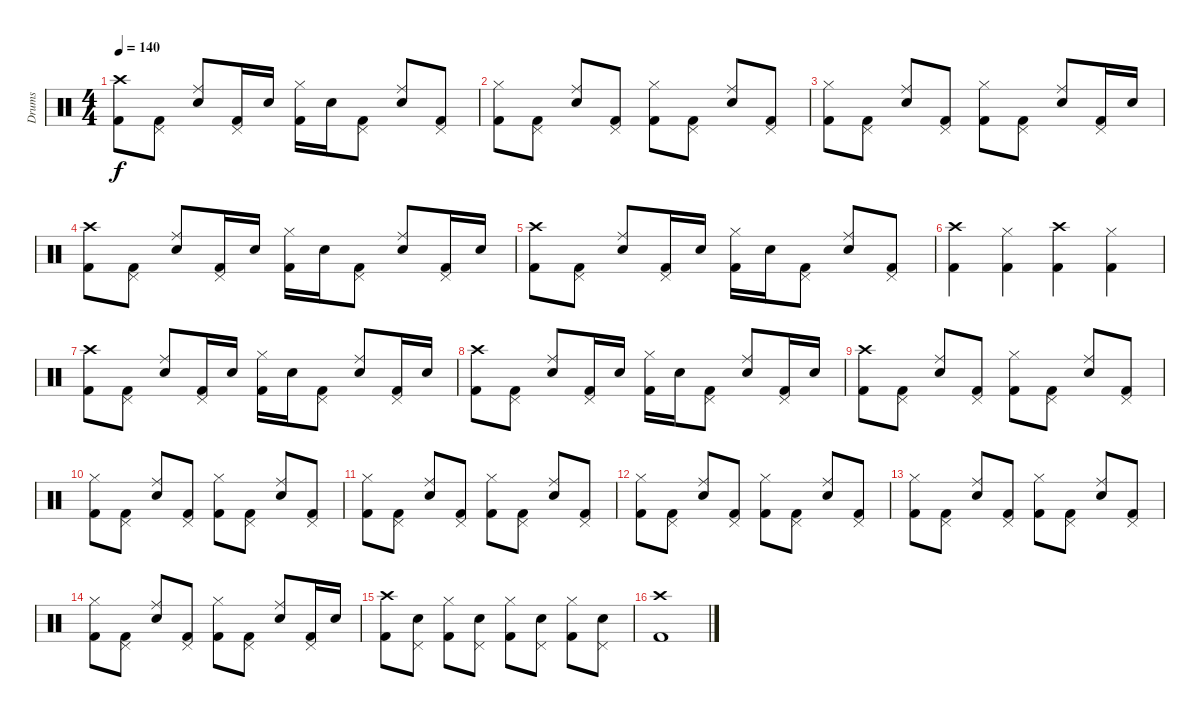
\track ("Drums" "Drums") {instrument percussion}
\staff {score}
\articulation defaults
\ts (4 4)
\tempo 140
\clef neutral
\ks c
("Kick (hit) 2" "Crash high (hit)").8{dy f} ("Kick (hit) 2" "Pedal Hi-Hat (hit)").8 ("Electric Snare (hit)" "Ride (middle)").8 ("Kick (hit) 2" "Pedal Hi-Hat (hit)").16 "Snare (hit) 2".16 ("Kick (hit) 2" "Hi-Hat (closed)").16 "Snare (hit) 2".16 ("Kick (hit) 2" "Pedal Hi-Hat (hit)").8 ("Electric Snare (hit)" "Ride (middle)").8 ("Kick (hit) 2" "Pedal Hi-Hat (hit)").8 |
("Kick (hit) 2" "Hi-Hat (closed)").8 ("Kick (hit) 2" "Pedal Hi-Hat (hit)").8 ("Electric Snare (hit)" "Ride (middle)").8 ("Kick (hit) 2" "Pedal Hi-Hat (hit)").8 ("Kick (hit) 2" "Hi-Hat (closed)").8 ("Kick (hit) 2" "Pedal Hi-Hat (hit)").8 ("Electric Snare (hit)" "Ride (middle)").8 ("Kick (hit) 2" "Pedal Hi-Hat (hit)").8 |
("Kick (hit) 2" "Hi-Hat (closed)").8 ("Kick (hit) 2" "Pedal Hi-Hat (hit)").8 ("Electric Snare (hit)" "Ride (middle)").8 ("Kick (hit) 2" "Pedal Hi-Hat (hit)").8 ("Kick (hit) 2" "Hi-Hat (closed)").8 ("Kick (hit) 2" "Pedal Hi-Hat (hit)").8 ("Electric Snare (hit)" "Ride (middle)").8 ("Kick (hit) 2" "Pedal Hi-Hat (hit)").16 "Electric Snare (hit)".16 |
("Kick (hit) 2" "Crash high (hit)").8 ("Kick (hit) 2" "Pedal Hi-Hat (hit)").8 ("Electric Snare (hit)" "Ride (middle)").8 ("Kick (hit) 2" "Pedal Hi-Hat (hit)").16 "Snare (hit) 2".16 ("Kick (hit) 2" "Hi-Hat (closed)").16 "Snare (hit) 2".16 ("Kick (hit) 2" "Pedal Hi-Hat (hit)").8 ("Electric Snare (hit)" "Ride (middle)").8 ("Kick (hit) 2" "Pedal Hi-Hat (hit)").16 "Electric Snare (hit)".16 |
("Kick (hit) 2" "Crash high (hit)").8 ("Kick (hit) 2" "Pedal Hi-Hat (hit)").8 ("Electric Snare (hit)" "Ride (middle)").8 ("Kick (hit) 2" "Pedal Hi-Hat (hit)").16 "Snare (hit) 2".16 ("Kick (hit) 2" "Hi-Hat (closed)").16 "Snare (hit) 2".16 ("Kick (hit) 2" "Pedal Hi-Hat (hit)").8 ("Electric Snare (hit)" "Ride (middle)").8 ("Kick (hit) 2" "Pedal Hi-Hat (hit)").8 |
("Kick (hit) 2" "Crash high (hit)").4 ("Kick (hit) 2" "Hi-Hat (closed)").4 ("Kick (hit) 2" "Crash high (hit)").4 ("Kick (hit) 2" "Hi-Hat (closed)").4 |
("Kick (hit) 2" "Crash high (hit)").8 ("Kick (hit) 2" "Pedal Hi-Hat (hit)").8 ("Electric Snare (hit)" "Ride (middle)").8 ("Kick (hit) 2" "Pedal Hi-Hat (hit)").16 "Snare (hit) 2".16 ("Kick (hit) 2" "Hi-Hat (closed)").16 "Snare (hit) 2".16 ("Kick (hit) 2" "Pedal Hi-Hat (hit)").8 ("Electric Snare (hit)" "Ride (middle)").8 ("Kick (hit) 2" "Pedal Hi-Hat (hit)").16 "Electric Snare (hit)".16 |
("Kick (hit) 2" "Crash high (hit)").8 ("Kick (hit) 2" "Pedal Hi-Hat (hit)").8 ("Electric Snare (hit)" "Ride (middle)").8 ("Kick (hit) 2" "Pedal Hi-Hat (hit)").16 "Snare (hit) 2".16 ("Kick (hit) 2" "Hi-Hat (closed)").16 "Snare (hit) 2".16 ("Kick (hit) 2" "Pedal Hi-Hat (hit)").8 ("Electric Snare (hit)" "Ride (middle)").8 ("Kick (hit) 2" "Pedal Hi-Hat (hit)").16 "Electric Snare (hit)".16 |
("Kick (hit) 2" "Crash high (hit)").8 ("Kick (hit) 2" "Pedal Hi-Hat (hit)").8 ("Electric Snare (hit)" "Ride (middle)").8 ("Kick (hit) 2" "Pedal Hi-Hat (hit)").8 ("Kick (hit) 2" "Hi-Hat (closed)").8 ("Kick (hit) 2" "Pedal Hi-Hat (hit)").8 ("Electric Snare (hit)" "Ride (middle)").8 ("Kick (hit) 2" "Pedal Hi-Hat (hit)").8 |
("Kick (hit) 2" "Hi-Hat (closed)").8 ("Kick (hit) 2" "Pedal Hi-Hat (hit)").8 ("Electric Snare (hit)" "Ride (middle)").8 ("Kick (hit) 2" "Pedal Hi-Hat (hit)").8 ("Kick (hit) 2" "Hi-Hat (closed)").8 ("Kick (hit) 2" "Pedal Hi-Hat (hit)").8 ("Electric Snare (hit)" "Ride (middle)").8 ("Kick (hit) 2" "Pedal Hi-Hat (hit)").8 |
("Kick (hit) 2" "Hi-Hat (closed)").8 ("Kick (hit) 2" "Pedal Hi-Hat (hit)").8 ("Electric Snare (hit)" "Ride (middle)").8 ("Kick (hit) 2" "Pedal Hi-Hat (hit)").8 ("Kick (hit) 2" "Hi-Hat (closed)").8 ("Kick (hit) 2" "Pedal Hi-Hat (hit)").8 ("Electric Snare (hit)" "Ride (middle)").8 ("Kick (hit) 2" "Pedal Hi-Hat (hit)").8 |
("Kick (hit) 2" "Hi-Hat (closed)").8 ("Kick (hit) 2" "Pedal Hi-Hat (hit)").8 ("Electric Snare (hit)" "Ride (middle)").8 ("Kick (hit) 2" "Pedal Hi-Hat (hit)").8 ("Kick (hit) 2" "Hi-Hat (closed)").8 ("Kick (hit) 2" "Pedal Hi-Hat (hit)").8 ("Electric Snare (hit)" "Ride (middle)").8 ("Kick (hit) 2" "Pedal Hi-Hat (hit)").8 |
("Kick (hit) 2" "Hi-Hat (closed)").8 ("Kick (hit) 2" "Pedal Hi-Hat (hit)").8 ("Electric Snare (hit)" "Ride (middle)").8 ("Kick (hit) 2" "Pedal Hi-Hat (hit)").8 ("Kick (hit) 2" "Hi-Hat (closed)").8 ("Kick (hit) 2" "Pedal Hi-Hat (hit)").8 ("Electric Snare (hit)" "Ride (middle)").8 ("Kick (hit) 2" "Pedal Hi-Hat (hit)").8 |
("Kick (hit) 2" "Hi-Hat (closed)").8 ("Kick (hit) 2" "Pedal Hi-Hat (hit)").8 ("Electric Snare (hit)" "Ride (middle)").8 ("Kick (hit) 2" "Pedal Hi-Hat (hit)").8 ("Kick (hit) 2" "Hi-Hat (closed)").8 ("Kick (hit) 2" "Pedal Hi-Hat (hit)").8 ("Electric Snare (hit)" "Ride (middle)").8 ("Kick (hit) 2" "Pedal Hi-Hat (hit)").16 "Electric Snare (hit)".16 |
("Kick (hit) 2" "Crash high (hit)").8 ("Electric Snare (hit)" "Pedal Hi-Hat (hit)").8 ("Kick (hit) 2" "Hi-Hat (closed)").8 ("Electric Snare (hit)" "Pedal Hi-Hat (hit)").8 ("Kick (hit) 2" "Hi-Hat (closed)").8 ("Electric Snare (hit)" "Pedal Hi-Hat (hit)").8 ("Kick (hit) 2" "Hi-Hat (closed)").8 ("Electric Snare (hit)" "Pedal Hi-Hat (hit)").8 |
("Kick (hit) 2" "Crash high (hit)").1
